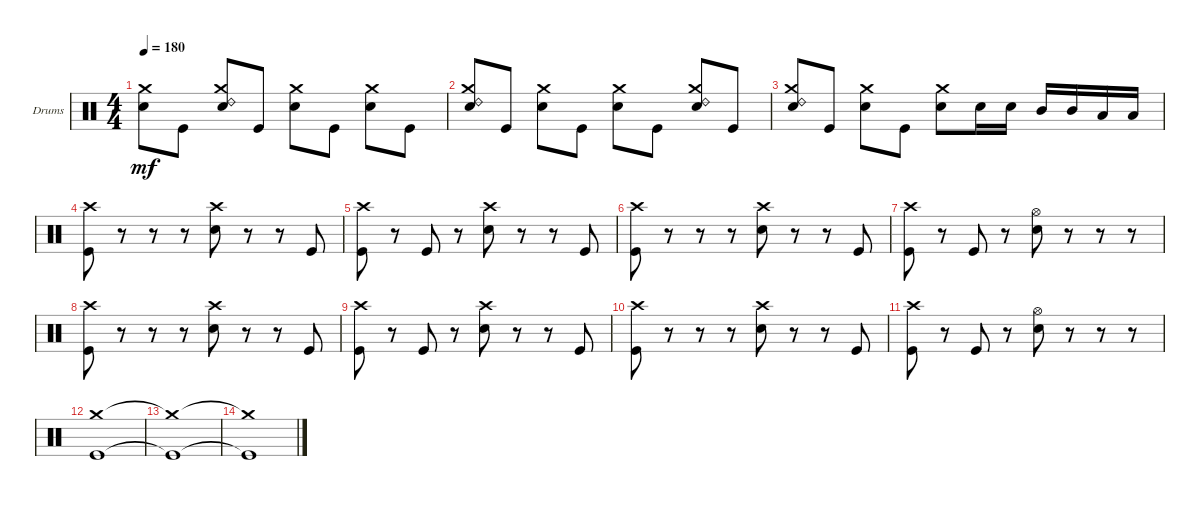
\defaultSystemsLayout 4
\bracketExtendMode groupsimilarinstruments
\firstSystemTrackNameOrientation horizontal
\otherSystemsTrackNameOrientation horizontal
\track ("Drums" "Drums") {instrument percussion}
\staff {score}
\articulation defaults
\ts (4 4)
\tempo 180
\clef neutral
\ks c
("Snare (hit) 2" "Crash medium (hit)").8{dy mf} "Kick (hit)".8 ("Snare (hit) 2" "Crash medium (hit)" "Ride (bell) 2").8 "Kick (hit)".8 ("Snare (hit) 2" "Crash medium (hit)").8 "Kick (hit)".8 ("Snare (hit) 2" "Crash medium (hit)").8 "Kick (hit)".8 |
("Snare (hit) 2" "Crash medium (hit)" "Ride (bell) 2").8 "Kick (hit)".8 ("Snare (hit) 2" "Crash medium (hit)").8 "Kick (hit)".8 ("Snare (hit) 2" "Crash medium (hit)").8 "Kick (hit)".8 ("Snare (hit) 2" "Crash medium (hit)" "Ride (bell) 2").8 "Kick (hit)".8 |
("Snare (hit) 2" "Crash medium (hit)" "Ride (bell) 2").8 "Kick (hit)".8 ("Snare (hit) 2" "Crash medium (hit)").8 "Kick (hit)".8 ("Snare (hit) 2" "Crash medium (hit)").8 "Snare (hit) 2".16 "Snare (hit) 2".16 "Mid Tom (hit)".16 "Mid Tom (hit)".16 "Low Tom (hit)".16 "Low Tom (hit)".16 |
("Kick (hit)" "Crash high (hit)").8 r.8 r.8 r.8 ("Snare (hit) 2" "Crash high (hit)").8 r.8 r.8 "Kick (hit)".8 |
("Kick (hit)" "Crash high (hit)").8 r.8 "Kick (hit)".8 r.8 ("Snare (hit) 2" "Crash high (hit)").8 r.8 r.8 "Kick (hit)".8 |
("Kick (hit)" "Crash high (hit)").8 r.8 r.8 r.8 ("Snare (hit) 2" "Crash high (hit)").8 r.8 r.8 "Kick (hit)".8 |
("Kick (hit)" "Crash high (hit)").8 r.8 "Kick (hit)".8 r.8 ("Snare (hit) 2" "Hi-Hat (open)").8 r.8 r.8 r.8 |
("Kick (hit)" "Crash high (hit)").8 r.8 r.8 r.8 ("Snare (hit) 2" "Crash high (hit)").8 r.8 r.8 "Kick (hit)".8 |
("Kick (hit)" "Crash high (hit)").8 r.8 "Kick (hit)".8 r.8 ("Snare (hit) 2" "Crash high (hit)").8 r.8 r.8 "Kick (hit)".8 |
("Kick (hit)" "Crash high (hit)").8 r.8 r.8 r.8 ("Snare (hit) 2" "Crash high (hit)").8 r.8 r.8 "Kick (hit)".8 |
("Kick (hit)" "Crash high (hit)").8 r.8 "Kick (hit)".8 r.8 ("Snare (hit) 2" "Hi-Hat (open)").8 r.8 r.8 r.8 |
("Crash medium (hit)" "Kick (hit)").1 |
("Crash medium (hit)"{t} "Kick (hit)"{t}).1 |
("Crash medium (hit)"{t} "Kick (hit)"{t}).1
